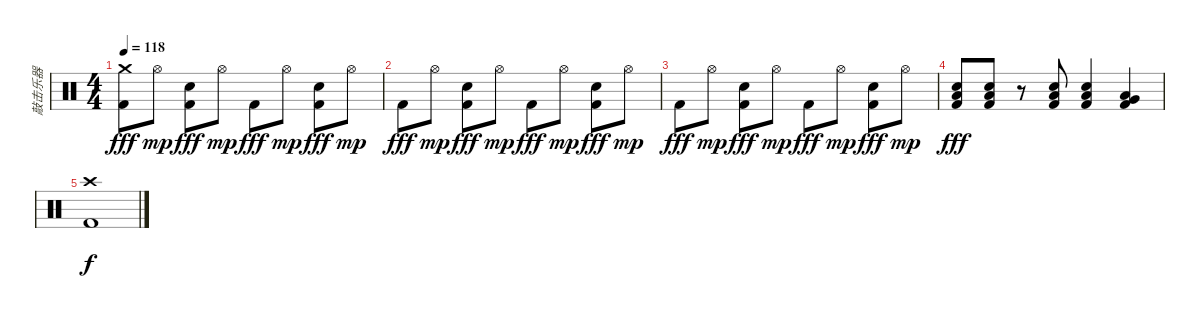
\track ("敲击乐器" "敲击乐器") {instrument percussion}
\staff {score}
\articulation defaults
\ts (4 4)
\tempo 118
\clef neutral
\ks c
("Crash medium (hit)" "Kick (hit) 2").8{dy fff} "Hi-Hat (open)".8{dy mp} ("Snare (hit) 2" "Kick (hit) 2").8{dy fff} "Hi-Hat (open)".8{dy mp} "Kick (hit) 2".8{dy fff} "Hi-Hat (open)".8{dy mp} ("Snare (hit) 2" "Kick (hit) 2").8{dy fff} "Hi-Hat (open)".8{dy mp} |
"Kick (hit) 2".8{dy fff} "Hi-Hat (open)".8{dy mp} ("Snare (hit) 2" "Kick (hit) 2").8{dy fff} "Hi-Hat (open)".8{dy mp} "Kick (hit) 2".8{dy fff} "Hi-Hat (open)".8{dy mp} ("Snare (hit) 2" "Kick (hit) 2").8{dy fff} "Hi-Hat (open)".8{dy mp} |
"Kick (hit) 2".8{dy fff} "Hi-Hat (open)".8{dy mp} ("Snare (hit) 2" "Kick (hit) 2").8{dy fff} "Hi-Hat (open)".8{dy mp} "Kick (hit) 2".8{dy fff} "Hi-Hat (open)".8{dy mp} ("Snare (hit) 2" "Kick (hit) 2").8{dy fff} "Hi-Hat (open)".8{dy mp} |
("Snare (hit) 2" "Low Floor Tom (hit)" "Kick (hit) 2").8{dy fff} ("Snare (hit) 2" "Low Floor Tom (hit)" "Kick (hit) 2").8 r.8 ("Snare (hit) 2" "Low Floor Tom (hit)" "Kick (hit) 2").8 ("Snare (hit) 2" "Low Floor Tom (hit)" "Kick (hit) 2").4 ("Very Low Tom (hit)" "Low Floor Tom (hit)" "Kick (hit) 2").4 |
("Crash high (hit)" "Kick (hit) 2").1{dy f}
